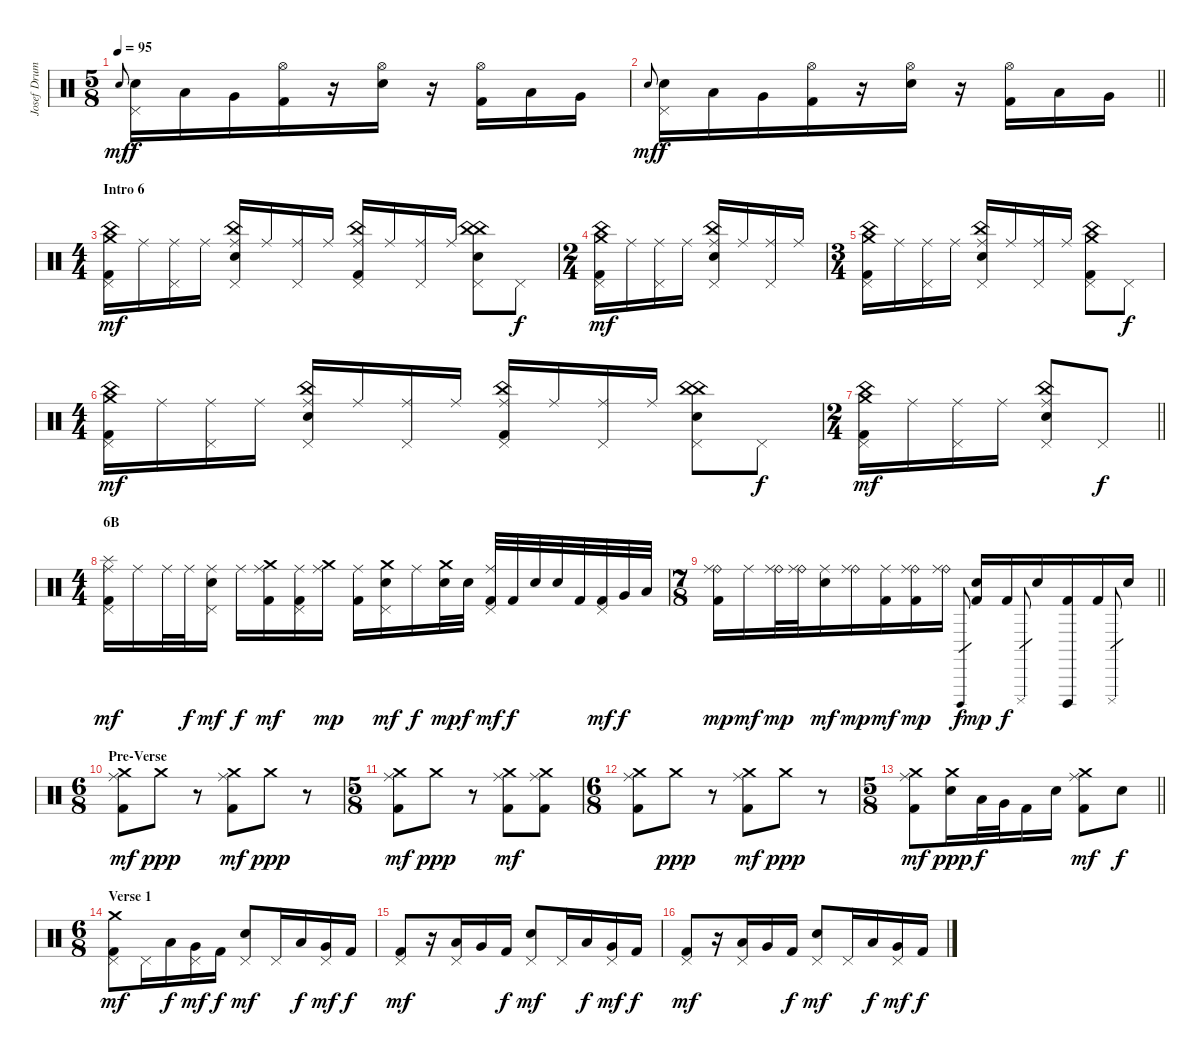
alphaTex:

\track ("Josef Drums" "Josef Drum") {instrument percussion}
\staff {score}
\articulation defaults
\ts (5 8)
\tempo 95
\clef neutral
\ks c "Electric Snare (hit)".8{gr onbeat dy mf}
("Electric Snare (hit)" "Pedal Hi-Hat (hit)").16{dy f} "Low Tom (hit)".16 "Very Low Tom (hit)".16 ("Kick (hit) 2" "Hi-Hat (open)").16 r.16 ("Electric Snare (hit)" "Hi-Hat (open)").16 r.16 ("Kick (hit) 2" "Hi-Hat (open)").16 "Low Tom (hit)".16 "Very Low Tom (hit)".16 |
\barLineRight lightlight "Electric Snare (hit)".8{gr onbeat dy mf}
("Electric Snare (hit)" "Pedal Hi-Hat (hit)").16{dy f} "Low Tom (hit)".16 "Very Low Tom (hit)".16 ("Kick (hit) 2" "Hi-Hat (open)").16 r.16 ("Electric Snare (hit)" "Hi-Hat (open)").16 r.16 ("Kick (hit) 2" "Hi-Hat (open)").16 "Low Tom (hit)".16 "Very Low Tom (hit)".16 |
\ts (4 4)
\section ("" "Intro 6")
("China (hit)" "Crash medium (hit)" "Kick (hit) 2" "Pedal Hi-Hat (hit)").16{dy mf} "Ride (middle)".16 ("Ride (middle)" "Pedal Hi-Hat (hit)").16 "Ride (middle)".16 ("China (hit)" "Ride (middle)" "Electric Snare (hit)" "Pedal Hi-Hat (hit)").16 "Ride (middle)".16 ("Ride (middle)" "Pedal Hi-Hat (hit)").16 "Ride (middle)".16 ("China (hit)" "Ride (middle)" "Kick (hit) 2" "Pedal Hi-Hat (hit)").16 "Ride (middle)".16 ("Ride (middle)" "Pedal Hi-Hat (hit)").16 "Ride (middle)".16 ("China (hit)" "China (hit)" "Electric Snare (hit)" "Pedal Hi-Hat (hit)").8 "Pedal Hi-Hat (hit)".8{dy f} |
\ts (2 4)
("China (hit)" "Crash medium (hit)" "Kick (hit) 2" "Pedal Hi-Hat (hit)").16{dy mf} "Ride (middle)".16 ("Ride (middle)" "Pedal Hi-Hat (hit)").16 "Ride (middle)".16 ("China (hit)" "Ride (middle)" "Electric Snare (hit)" "Pedal Hi-Hat (hit)").16 "Ride (middle)".16 ("Ride (middle)" "Pedal Hi-Hat (hit)").16 "Ride (middle)".16 |
\ts (3 4)
("China (hit)" "Crash medium (hit)" "Kick (hit) 2" "Pedal Hi-Hat (hit)").16 "Ride (middle)".16 ("Ride (middle)" "Pedal Hi-Hat (hit)").16 "Ride (middle)".16 ("China (hit)" "Ride (middle)" "Electric Snare (hit)" "Pedal Hi-Hat (hit)").16 "Ride (middle)".16 ("Ride (middle)" "Pedal Hi-Hat (hit)").16 "Ride (middle)".16 ("China (hit)" "Crash medium (hit)" "Kick (hit) 2" "Pedal Hi-Hat (hit)").8 "Pedal Hi-Hat (hit)".8{dy f} |
\ts (4 4)
("China (hit)" "Crash medium (hit)" "Kick (hit) 2" "Pedal Hi-Hat (hit)").16{dy mf} "Ride (middle)".16 ("Ride (middle)" "Pedal Hi-Hat (hit)").16 "Ride (middle)".16 ("China (hit)" "Ride (middle)" "Electric Snare (hit)" "Pedal Hi-Hat (hit)").16 "Ride (middle)".16 ("Ride (middle)" "Pedal Hi-Hat (hit)").16 "Ride (middle)".16 ("China (hit)" "Ride (middle)" "Kick (hit) 2" "Pedal Hi-Hat (hit)").16 "Ride (middle)".16 ("Ride (middle)" "Pedal Hi-Hat (hit)").16 "Ride (middle)".16 ("China (hit)" "China (hit)" "Electric Snare (hit)" "Pedal Hi-Hat (hit)").8 "Pedal Hi-Hat (hit)".8{dy f} |
\ts (2 4)
\barLineRight lightlight
("China (hit)" "Crash medium (hit)" "Kick (hit) 2" "Pedal Hi-Hat (hit)").16{dy mf} "Ride (middle)".16 ("Ride (middle)" "Pedal Hi-Hat (hit)").16 "Ride (middle)".16 ("China (hit)" "Ride (middle)" "Electric Snare (hit)" "Pedal Hi-Hat (hit)").8 "Pedal Hi-Hat (hit)".8{dy f} |
\ts (4 4)
\section ("" "6B")
("Splash (hit)" "Ride (middle)" "Kick (hit) 2" "Pedal Hi-Hat (hit)").16{dy mf} "Ride (middle)".16 "Ride (middle)".32 "Ride (middle)".32{dy f} ("Ride (middle)" "Electric Snare (hit)" "Pedal Hi-Hat (hit)").16{dy mf} "Ride (middle)".16{dy f} ("Crash medium (hit)" "Ride (middle)" "Kick (hit) 2").16{dy mf} ("Ride (middle)" "Kick (hit) 2" "Pedal Hi-Hat (hit)").16 ("Crash medium (hit)" "Ride (middle)").16{dy mp} ("Ride (middle)" "Kick (hit) 2").16 ("Crash medium (hit)" "Electric Snare (hit)" "Pedal Hi-Hat (hit)").16{dy mf} "Ride (middle)".16{dy f} ("Crash medium (hit)" "Electric Snare (hit)").32{dy mp} "Electric Snare (hit)".32{dy f} ("Ride (middle)" "Kick (hit) 2" "Pedal Hi-Hat (hit)").32{dy mf} "Kick (hit) 2".32{dy f} "Electric Snare (hit)".32 "Electric Snare (hit)".32 "Kick (hit) 2".32 ("Kick (hit) 2" "Pedal Hi-Hat (hit)").32{dy mf} "Very Low Tom (hit)".32{dy f} "Low Floor Tom (hit)".32 |
\ts (7 8)
\barLineRight lightlight
("Ride (bell)" "Ride (middle)" "Kick (hit) 2").16{dy mp} "Ride (middle)".16{dy mf} ("Ride (bell)" "Ride (middle)").32{dy mp} ("Ride (bell)" "Ride (middle)").32 ("Ride (middle)" "Electric Snare (hit)").16{dy mf} ("Ride (bell)" "Ride (middle)").16{dy mp} ("Ride (middle)" "Kick (hit) 2").16{dy mf} ("Ride (bell)" "Ride (middle)" "Kick (hit) 2").16{dy mp} ("Ride (bell)" "Ride (middle)").16 "Cuica (open)".8{gr dy f} ("Electric Snare (hit)" "Kick (hit) 2").16{dy mp} "Kick (hit) 2".16{dy f} "Cuica (mute)".8{gr} "Electric Snare (hit)".16 ("Cuica (open)" "Kick (hit) 2").16 "Kick (hit) 2".16 "Cuica (mute)".8{gr} "Electric Snare (hit)".16 |
\ts (6 8)
\section ("" "Pre-Verse")
("Crash medium (hit)" "Ride (middle)" "Kick (hit) 2").8{dy mf} "Crash medium (hit)".8{dy ppp} r.8 ("Crash medium (hit)" "Ride (middle)" "Kick (hit) 2").8{dy mf} "Crash medium (hit)".8{dy ppp} r.8 |
\ts (5 8)
("Crash medium (hit)" "Ride (middle)" "Kick (hit) 2").8{dy mf} "Crash medium (hit)".8{dy ppp} r.8 ("Crash medium (hit)" "Ride (middle)" "Kick (hit) 2").8{dy mf} ("Crash medium (hit)" "Ride (middle)" "Kick (hit) 2").8 |
\ts (6 8)
("Crash medium (hit)" "Ride (middle)" "Kick (hit) 2").8 "Crash medium (hit)".8{dy ppp} r.8 ("Crash medium (hit)" "Ride (middle)" "Kick (hit) 2").8{dy mf} "Crash medium (hit)".8{dy ppp} r.8 |
\ts (5 8)
\barLineRight lightlight
("Crash medium (hit)" "Ride (middle)" "Kick (hit) 2").8{dy mf} ("Crash medium (hit)" "Electric Snare (hit)").16{dy ppp} "Low Tom (hit)".32{dy f} "Very Low Tom (hit)".32 "Kick (hit) 2".16 "Electric Snare (hit)".16 ("Crash medium (hit)" "Ride (middle)" "Kick (hit) 2").8{dy mf} "Electric Snare (hit)".8{dy f} |
\ts (6 8)
\section ("" "Verse 1")
("Crash medium (hit)" "Kick (hit) 2" "Pedal Hi-Hat (hit)").8{dy mf} "Pedal Hi-Hat (hit)".16 "Low Tom (hit)".16{dy f} ("Very Low Tom (hit)" "Pedal Hi-Hat (hit)").16{dy mf} "Kick (hit) 2".16{dy f} ("Electric Snare (hit)" "Pedal Hi-Hat (hit)").8{dy mf} "Pedal Hi-Hat (hit)".16 "Low Tom (hit)".16{dy f} ("Very Low Tom (hit)" "Pedal Hi-Hat (hit)").16{dy mf} "Kick (hit) 2".16{dy f} |
("Kick (hit) 2" "Pedal Hi-Hat (hit)").8{dy mf} r.16 ("Low Tom (hit)" "Pedal Hi-Hat (hit)").16 "Very Low Tom (hit)".16 "Kick (hit) 2".16{dy f} ("Electric Snare (hit)" "Pedal Hi-Hat (hit)").8{dy mf} "Pedal Hi-Hat (hit)".16 "Low Tom (hit)".16{dy f} ("Very Low Tom (hit)" "Pedal Hi-Hat (hit)").16{dy mf} "Kick (hit) 2".16{dy f} |
("Kick (hit) 2" "Pedal Hi-Hat (hit)").8{dy mf} r.16 ("Low Tom (hit)" "Pedal Hi-Hat (hit)").16 "Very Low Tom (hit)".16 "Kick (hit) 2".16{dy f} ("Electric Snare (hit)" "Pedal Hi-Hat (hit)").8{dy mf} "Pedal Hi-Hat (hit)".16 "Low Tom (hit)".16{dy f} ("Very Low Tom (hit)" "Pedal Hi-Hat (hit)").16{dy mf} "Kick (hit) 2".16{dy f}
